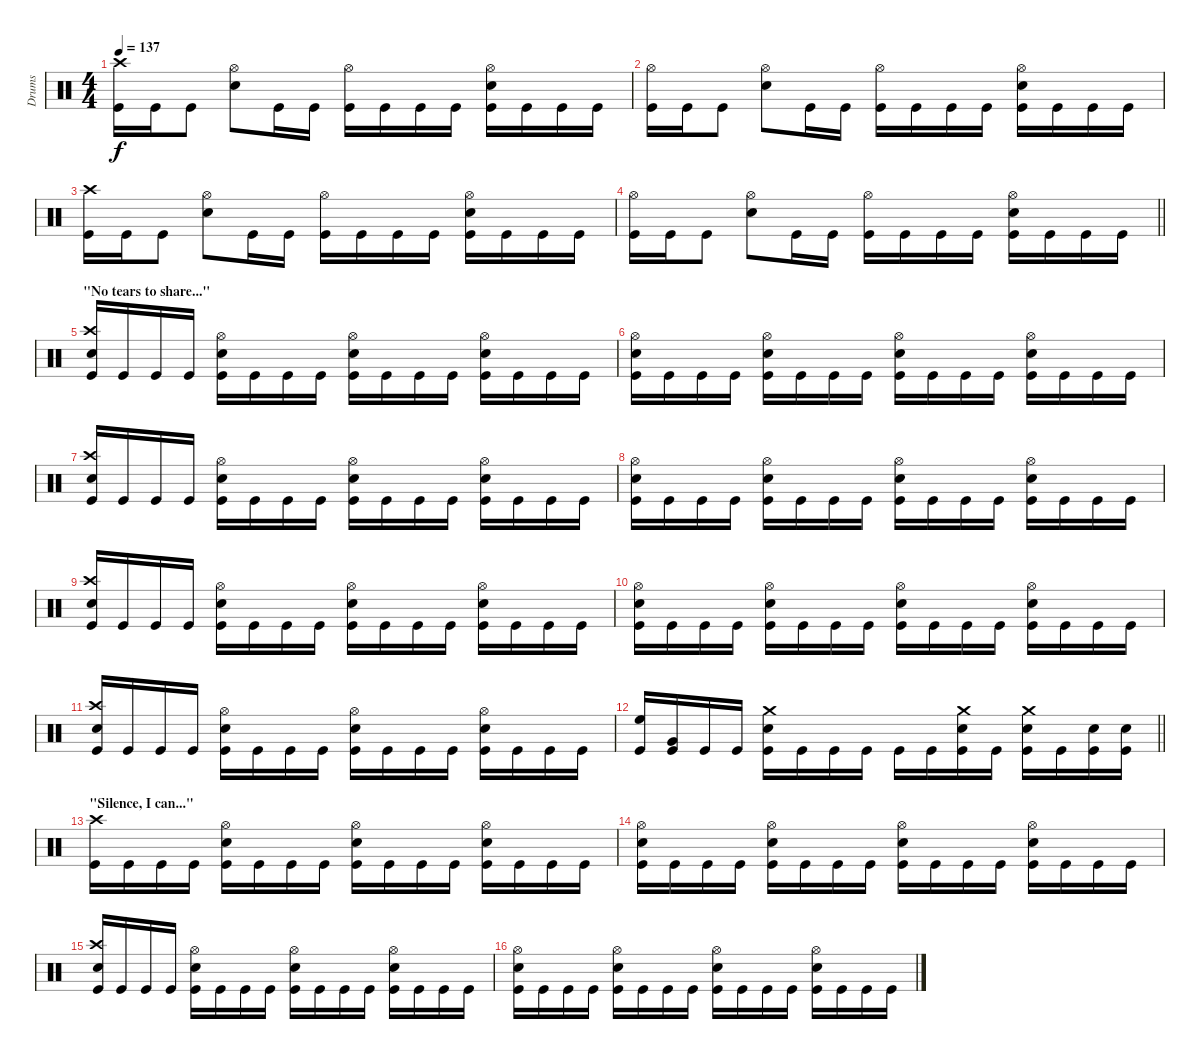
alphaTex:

\track ("Drums" "Drums") {instrument percussion}
\staff {score}
\articulation defaults
\ts (4 4)
\tempo 137
\clef neutral
\ks c
("Kick (hit)" "Crash high (hit)").16{dy f} "Kick (hit)".16 "Kick (hit)".8 ("Snare (hit) 2" "Hi-Hat (open)").8 "Kick (hit)".16 "Kick (hit)".16 ("Kick (hit)" "Hi-Hat (open)").16 "Kick (hit)".16 "Kick (hit)".16 "Kick (hit)".16 ("Kick (hit)" "Snare (hit) 2" "Hi-Hat (open)").16 "Kick (hit)".16 "Kick (hit)".16 "Kick (hit)".16 |
("Kick (hit)" "Hi-Hat (open)").16 "Kick (hit)".16 "Kick (hit)".8 ("Snare (hit) 2" "Hi-Hat (open)").8 "Kick (hit)".16 "Kick (hit)".16 ("Kick (hit)" "Hi-Hat (open)").16 "Kick (hit)".16 "Kick (hit)".16 "Kick (hit)".16 ("Kick (hit)" "Snare (hit) 2" "Hi-Hat (open)").16 "Kick (hit)".16 "Kick (hit)".16 "Kick (hit)".16 |
("Kick (hit)" "Crash high (hit)").16 "Kick (hit)".16 "Kick (hit)".8 ("Snare (hit) 2" "Hi-Hat (open)").8 "Kick (hit)".16 "Kick (hit)".16 ("Kick (hit)" "Hi-Hat (open)").16 "Kick (hit)".16 "Kick (hit)".16 "Kick (hit)".16 ("Kick (hit)" "Snare (hit) 2" "Hi-Hat (open)").16 "Kick (hit)".16 "Kick (hit)".16 "Kick (hit)".16 |
\barLineRight lightlight
("Kick (hit)" "Hi-Hat (open)").16 "Kick (hit)".16 "Kick (hit)".8 ("Snare (hit) 2" "Hi-Hat (open)").8 "Kick (hit)".16 "Kick (hit)".16 ("Kick (hit)" "Hi-Hat (open)").16 "Kick (hit)".16 "Kick (hit)".16 "Kick (hit)".16 ("Kick (hit)" "Snare (hit) 2" "Hi-Hat (open)").16 "Kick (hit)".16 "Kick (hit)".16 "Kick (hit)".16 |
\section ("" "\"No tears to share...\"")
("Kick (hit)" "Snare (hit) 2" "Crash high (hit)").16 "Kick (hit)".16 "Kick (hit)".16 "Kick (hit)".16 ("Kick (hit)" "Snare (hit) 2" "Hi-Hat (open)").16 "Kick (hit)".16 "Kick (hit)".16 "Kick (hit)".16 ("Kick (hit)" "Snare (hit) 2" "Hi-Hat (open)").16 "Kick (hit)".16 "Kick (hit)".16 "Kick (hit)".16 ("Kick (hit)" "Snare (hit) 2" "Hi-Hat (open)").16 "Kick (hit)".16 "Kick (hit)".16 "Kick (hit)".16 |
("Kick (hit)" "Snare (hit) 2" "Hi-Hat (open)").16 "Kick (hit)".16 "Kick (hit)".16 "Kick (hit)".16 ("Kick (hit)" "Snare (hit) 2" "Hi-Hat (open)").16 "Kick (hit)".16 "Kick (hit)".16 "Kick (hit)".16 ("Kick (hit)" "Snare (hit) 2" "Hi-Hat (open)").16 "Kick (hit)".16 "Kick (hit)".16 "Kick (hit)".16 ("Kick (hit)" "Snare (hit) 2" "Hi-Hat (open)").16 "Kick (hit)".16 "Kick (hit)".16 "Kick (hit)".16 |
("Kick (hit)" "Snare (hit) 2" "Crash high (hit)").16 "Kick (hit)".16 "Kick (hit)".16 "Kick (hit)".16 ("Kick (hit)" "Snare (hit) 2" "Hi-Hat (open)").16 "Kick (hit)".16 "Kick (hit)".16 "Kick (hit)".16 ("Kick (hit)" "Snare (hit) 2" "Hi-Hat (open)").16 "Kick (hit)".16 "Kick (hit)".16 "Kick (hit)".16 ("Kick (hit)" "Snare (hit) 2" "Hi-Hat (open)").16 "Kick (hit)".16 "Kick (hit)".16 "Kick (hit)".16 |
("Kick (hit)" "Snare (hit) 2" "Hi-Hat (open)").16 "Kick (hit)".16 "Kick (hit)".16 "Kick (hit)".16 ("Kick (hit)" "Snare (hit) 2" "Hi-Hat (open)").16 "Kick (hit)".16 "Kick (hit)".16 "Kick (hit)".16 ("Kick (hit)" "Snare (hit) 2" "Hi-Hat (open)").16 "Kick (hit)".16 "Kick (hit)".16 "Kick (hit)".16 ("Kick (hit)" "Snare (hit) 2" "Hi-Hat (open)").16 "Kick (hit)".16 "Kick (hit)".16 "Kick (hit)".16 |
("Kick (hit)" "Snare (hit) 2" "Crash high (hit)").16 "Kick (hit)".16 "Kick (hit)".16 "Kick (hit)".16 ("Kick (hit)" "Snare (hit) 2" "Hi-Hat (open)").16 "Kick (hit)".16 "Kick (hit)".16 "Kick (hit)".16 ("Kick (hit)" "Snare (hit) 2" "Hi-Hat (open)").16 "Kick (hit)".16 "Kick (hit)".16 "Kick (hit)".16 ("Kick (hit)" "Snare (hit) 2" "Hi-Hat (open)").16 "Kick (hit)".16 "Kick (hit)".16 "Kick (hit)".16 |
("Kick (hit)" "Snare (hit) 2" "Hi-Hat (open)").16 "Kick (hit)".16 "Kick (hit)".16 "Kick (hit)".16 ("Kick (hit)" "Snare (hit) 2" "Hi-Hat (open)").16 "Kick (hit)".16 "Kick (hit)".16 "Kick (hit)".16 ("Kick (hit)" "Snare (hit) 2" "Hi-Hat (open)").16 "Kick (hit)".16 "Kick (hit)".16 "Kick (hit)".16 ("Kick (hit)" "Snare (hit) 2" "Hi-Hat (open)").16 "Kick (hit)".16 "Kick (hit)".16 "Kick (hit)".16 |
("Kick (hit)" "Snare (hit) 2" "Crash high (hit)").16 "Kick (hit)".16 "Kick (hit)".16 "Kick (hit)".16 ("Kick (hit)" "Snare (hit) 2" "Hi-Hat (open)").16 "Kick (hit)".16 "Kick (hit)".16 "Kick (hit)".16 ("Kick (hit)" "Snare (hit) 2" "Hi-Hat (open)").16 "Kick (hit)".16 "Kick (hit)".16 "Kick (hit)".16 ("Kick (hit)" "Snare (hit) 2" "Hi-Hat (open)").16 "Kick (hit)".16 "Kick (hit)".16 "Kick (hit)".16 |
\barLineRight lightlight
("Kick (hit)" "High Floor Tom (hit)").16 ("Kick (hit)" "Very Low Tom (hit)").16 "Kick (hit)".16 "Kick (hit)".16 ("Kick (hit)" "Snare (hit) 2" "Crash medium (hit)").16 "Kick (hit)".16 "Kick (hit)".16 "Kick (hit)".16 "Kick (hit)".16 "Kick (hit)".16 ("Kick (hit)" "Snare (hit) 2" "Crash medium (hit)").16 "Kick (hit)".16 ("Kick (hit)" "Snare (hit) 2" "Crash medium (hit)").16 "Kick (hit)".16 ("Kick (hit)" "Snare (hit) 2").16 ("Kick (hit)" "Snare (hit) 2").16 |
\section ("" "\"Silence, I can...\"")
("Kick (hit)" "Crash high (hit)").16 "Kick (hit)".16 "Kick (hit)".16 "Kick (hit)".16 ("Kick (hit)" "Snare (hit) 2" "Hi-Hat (open)").16 "Kick (hit)".16 "Kick (hit)".16 "Kick (hit)".16 ("Kick (hit)" "Snare (hit) 2" "Hi-Hat (open)").16 "Kick (hit)".16 "Kick (hit)".16 "Kick (hit)".16 ("Kick (hit)" "Snare (hit) 2" "Hi-Hat (open)").16 "Kick (hit)".16 "Kick (hit)".16 "Kick (hit)".16 |
("Kick (hit)" "Snare (hit) 2" "Hi-Hat (open)").16 "Kick (hit)".16 "Kick (hit)".16 "Kick (hit)".16 ("Kick (hit)" "Snare (hit) 2" "Hi-Hat (open)").16 "Kick (hit)".16 "Kick (hit)".16 "Kick (hit)".16 ("Kick (hit)" "Snare (hit) 2" "Hi-Hat (open)").16 "Kick (hit)".16 "Kick (hit)".16 "Kick (hit)".16 ("Kick (hit)" "Snare (hit) 2" "Hi-Hat (open)").16 "Kick (hit)".16 "Kick (hit)".16 "Kick (hit)".16 |
("Kick (hit)" "Snare (hit) 2" "Crash high (hit)").16 "Kick (hit)".16 "Kick (hit)".16 "Kick (hit)".16 ("Kick (hit)" "Snare (hit) 2" "Hi-Hat (open)").16 "Kick (hit)".16 "Kick (hit)".16 "Kick (hit)".16 ("Kick (hit)" "Snare (hit) 2" "Hi-Hat (open)").16 "Kick (hit)".16 "Kick (hit)".16 "Kick (hit)".16 ("Kick (hit)" "Snare (hit) 2" "Hi-Hat (open)").16 "Kick (hit)".16 "Kick (hit)".16 "Kick (hit)".16 |
("Kick (hit)" "Snare (hit) 2" "Hi-Hat (open)").16 "Kick (hit)".16 "Kick (hit)".16 "Kick (hit)".16 ("Kick (hit)" "Snare (hit) 2" "Hi-Hat (open)").16 "Kick (hit)".16 "Kick (hit)".16 "Kick (hit)".16 ("Kick (hit)" "Snare (hit) 2" "Hi-Hat (open)").16 "Kick (hit)".16 "Kick (hit)".16 "Kick (hit)".16 ("Kick (hit)" "Snare (hit) 2" "Hi-Hat (open)").16 "Kick (hit)".16 "Kick (hit)".16 "Kick (hit)".16
